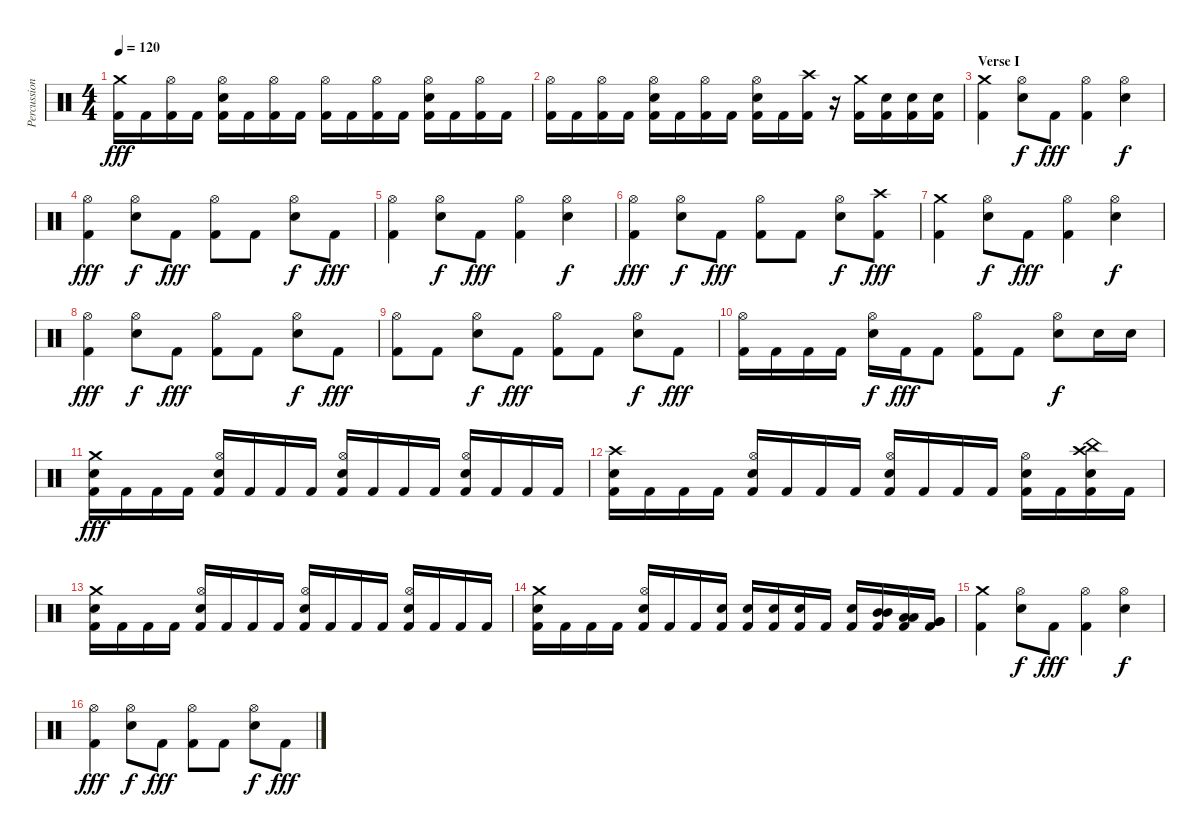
\track ("Percussion" "Percussion") {instrument percussion}
\staff {score}
\articulation defaults
\ts (4 4)
\tempo 120
\clef neutral
\ks c
("Crash medium (hit)" "Kick (hit) 2").16{dy fff} "Kick (hit) 2".16 ("Hi-Hat (open)" "Kick (hit) 2").16 "Kick (hit) 2".16 ("Hi-Hat (open)" "Snare (hit) 2" "Kick (hit) 2").16 "Kick (hit) 2".16 ("Hi-Hat (open)" "Kick (hit) 2").16 "Kick (hit) 2".16 ("Hi-Hat (open)" "Kick (hit) 2").16 "Kick (hit) 2".16 ("Hi-Hat (open)" "Kick (hit) 2").16 "Kick (hit) 2".16 ("Hi-Hat (open)" "Snare (hit) 2" "Kick (hit) 2").16 "Kick (hit) 2".16 ("Hi-Hat (open)" "Kick (hit) 2").16 "Kick (hit) 2".16 |
("Hi-Hat (open)" "Kick (hit) 2").16 "Kick (hit) 2".16 ("Hi-Hat (open)" "Kick (hit) 2").16 "Kick (hit) 2".16 ("Hi-Hat (open)" "Snare (hit) 2" "Kick (hit) 2").16 "Kick (hit) 2".16 ("Hi-Hat (open)" "Kick (hit) 2").16 "Kick (hit) 2".16 ("Hi-Hat (open)" "Snare (hit) 2" "Kick (hit) 2").16 "Kick (hit) 2".16 ("Crash high (hit)" "Kick (hit) 2").16 r.16 ("Crash medium (hit)" "Kick (hit) 2").16 ("Snare (hit) 2" "Kick (hit) 2").16 ("Snare (hit) 2" "Kick (hit) 2").16 ("Snare (hit) 2" "Kick (hit) 2").16 |
\section ("" "Verse I")
("Crash medium (hit)" "Kick (hit) 2").4 ("Hi-Hat (open)" "Snare (hit) 2").8{dy f} "Kick (hit) 2".8{dy fff} ("Hi-Hat (open)" "Kick (hit) 2").4 ("Hi-Hat (open)" "Snare (hit) 2").4{dy f} |
("Hi-Hat (open)" "Kick (hit) 2").4{dy fff} ("Hi-Hat (open)" "Snare (hit) 2").8{dy f} "Kick (hit) 2".8{dy fff} ("Hi-Hat (open)" "Kick (hit) 2").8 "Kick (hit) 2".8 ("Hi-Hat (open)" "Snare (hit) 2").8{dy f} "Kick (hit) 2".8{dy fff} |
("Hi-Hat (open)" "Kick (hit) 2").4 ("Hi-Hat (open)" "Snare (hit) 2").8{dy f} "Kick (hit) 2".8{dy fff} ("Hi-Hat (open)" "Kick (hit) 2").4 ("Hi-Hat (open)" "Snare (hit) 2").4{dy f} |
("Hi-Hat (open)" "Kick (hit) 2").4{dy fff} ("Hi-Hat (open)" "Snare (hit) 2").8{dy f} "Kick (hit) 2".8{dy fff} ("Hi-Hat (open)" "Kick (hit) 2").8 "Kick (hit) 2".8 ("Hi-Hat (open)" "Snare (hit) 2").8{dy f} ("Crash high (hit)" "Kick (hit) 2").8{dy fff} |
("Crash medium (hit)" "Kick (hit) 2").4 ("Hi-Hat (open)" "Snare (hit) 2").8{dy f} "Kick (hit) 2".8{dy fff} ("Hi-Hat (open)" "Kick (hit) 2").4 ("Hi-Hat (open)" "Snare (hit) 2").4{dy f} |
("Hi-Hat (open)" "Kick (hit) 2").4{dy fff} ("Hi-Hat (open)" "Snare (hit) 2").8{dy f} "Kick (hit) 2".8{dy fff} ("Hi-Hat (open)" "Kick (hit) 2").8 "Kick (hit) 2".8 ("Hi-Hat (open)" "Snare (hit) 2").8{dy f} "Kick (hit) 2".8{dy fff} |
("Hi-Hat (open)" "Kick (hit) 2").8 "Kick (hit) 2".8 ("Hi-Hat (open)" "Snare (hit) 2").8{dy f} "Kick (hit) 2".8{dy fff} ("Hi-Hat (open)" "Kick (hit) 2").8 "Kick (hit) 2".8 ("Hi-Hat (open)" "Snare (hit) 2").8{dy f} "Kick (hit) 2".8{dy fff} |
("Hi-Hat (open)" "Kick (hit) 2").16 "Kick (hit) 2".16 "Kick (hit) 2".16 "Kick (hit) 2".16 ("Hi-Hat (open)" "Snare (hit) 2").16{dy f} "Kick (hit) 2".16{dy fff} "Kick (hit) 2".8 ("Hi-Hat (open)" "Kick (hit) 2").8 "Kick (hit) 2".8 ("Hi-Hat (open)" "Snare (hit) 2").8{dy f} "Snare (hit) 2".16 "Snare (hit) 2".16 |
("Crash medium (hit)" "Snare (hit) 2" "Kick (hit) 2").16{dy fff} "Kick (hit) 2".16 "Kick (hit) 2".16 "Kick (hit) 2".16 ("Hi-Hat (open)" "Snare (hit) 2" "Kick (hit) 2").16 "Kick (hit) 2".16 "Kick (hit) 2".16 "Kick (hit) 2".16 ("Hi-Hat (open)" "Snare (hit) 2" "Kick (hit) 2").16 "Kick (hit) 2".16 "Kick (hit) 2".16 "Kick (hit) 2".16 ("Hi-Hat (open)" "Snare (hit) 2" "Kick (hit) 2").16 "Kick (hit) 2".16 "Kick (hit) 2".16 "Kick (hit) 2".16 |
("Crash high (hit)" "Snare (hit) 2" "Kick (hit) 2").16 "Kick (hit) 2".16 "Kick (hit) 2".16 "Kick (hit) 2".16 ("Hi-Hat (open)" "Snare (hit) 2" "Kick (hit) 2").16 "Kick (hit) 2".16 "Kick (hit) 2".16 "Kick (hit) 2".16 ("Hi-Hat (open)" "Snare (hit) 2" "Kick (hit) 2").16 "Kick (hit) 2".16 "Kick (hit) 2".16 "Kick (hit) 2".16 ("Hi-Hat (open)" "Snare (hit) 2" "Kick (hit) 2").16 "Kick (hit) 2".16 ("China (hit)" "Crash high (hit)" "Snare (hit) 2" "Kick (hit) 2").16 "Kick (hit) 2".16 |
("Crash medium (hit)" "Snare (hit) 2" "Kick (hit) 2").16 "Kick (hit) 2".16 "Kick (hit) 2".16 "Kick (hit) 2".16 ("Hi-Hat (open)" "Snare (hit) 2" "Kick (hit) 2").16 "Kick (hit) 2".16 "Kick (hit) 2".16 "Kick (hit) 2".16 ("Hi-Hat (open)" "Snare (hit) 2" "Kick (hit) 2").16 "Kick (hit) 2".16 "Kick (hit) 2".16 "Kick (hit) 2".16 ("Hi-Hat (open)" "Snare (hit) 2" "Kick (hit) 2").16 "Kick (hit) 2".16 "Kick (hit) 2".16 "Kick (hit) 2".16 |
("Crash medium (hit)" "Snare (hit) 2" "Kick (hit) 2").16 "Kick (hit) 2".16 "Kick (hit) 2".16 "Kick (hit) 2".16 ("Hi-Hat (open)" "Snare (hit) 2" "Kick (hit) 2").16 "Kick (hit) 2".16 "Kick (hit) 2".16 ("Snare (hit) 2" "Kick (hit) 2").16 ("Snare (hit) 2" "Kick (hit) 2").16 ("Snare (hit) 2" "Kick (hit) 2").16 ("Snare (hit) 2" "Kick (hit) 2").16 "Kick (hit) 2".16 ("Snare (hit) 2" "Kick (hit) 2").16 ("Mid Tom (hit)" "Mid Tom (hit)" "Kick (hit) 2").16 ("Low Tom (hit)" "Low Tom (hit)" "Kick (hit) 2").16 ("Very Low Tom (hit)" "Very Low Tom (hit)" "Kick (hit) 2").16 |
("Crash medium (hit)" "Kick (hit) 2").4 ("Hi-Hat (open)" "Snare (hit) 2").8{dy f} "Kick (hit) 2".8{dy fff} ("Hi-Hat (open)" "Kick (hit) 2").4 ("Hi-Hat (open)" "Snare (hit) 2").4{dy f} |
("Hi-Hat (open)" "Kick (hit) 2").4{dy fff} ("Hi-Hat (open)" "Snare (hit) 2").8{dy f} "Kick (hit) 2".8{dy fff} ("Hi-Hat (open)" "Kick (hit) 2").8 "Kick (hit) 2".8 ("Hi-Hat (open)" "Snare (hit) 2").8{dy f} "Kick (hit) 2".8{dy fff}
